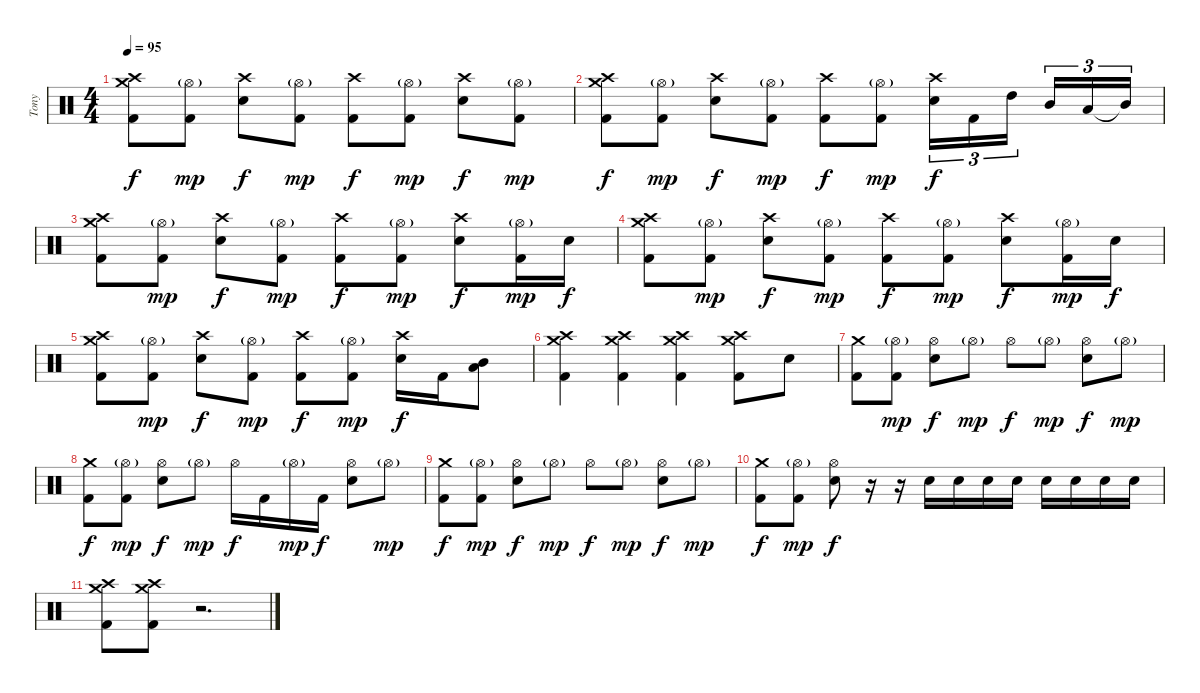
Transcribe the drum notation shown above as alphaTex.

\track ("Tony" "Tony") {instrument percussion}
\staff {score}
\articulation defaults
\ts (4 4)
\tempo 95
\clef neutral
\ks c
("Crash high (hit)" "Crash medium (hit)" "Kick (hit) 2").8{dy f} ("Hi-Hat (open)"{g} "Kick (hit) 2").8{dy mp} ("Crash high (hit)" "Electric Snare (hit)").8{dy f} ("Hi-Hat (open)"{g} "Kick (hit) 2").8{dy mp} ("Crash high (hit)" "Kick (hit) 2").8{dy f} ("Hi-Hat (open)"{g} "Kick (hit) 2").8{dy mp} ("Crash high (hit)" "Electric Snare (hit)").8{dy f} ("Hi-Hat (open)"{g} "Kick (hit) 2").8{dy mp} |
("Crash high (hit)" "Crash medium (hit)" "Kick (hit) 2").8{dy f} ("Hi-Hat (open)"{g} "Kick (hit) 2").8{dy mp} ("Crash high (hit)" "Electric Snare (hit)").8{dy f} ("Hi-Hat (open)"{g} "Kick (hit) 2").8{dy mp} ("Crash high (hit)" "Kick (hit) 2").8{dy f} ("Hi-Hat (open)"{g} "Kick (hit) 2").8{dy mp} ("Crash high (hit)" "Electric Snare (hit)").16{tu (3 2) dy f} "Kick (hit) 2".16{tu (3 2)} "High Tom (hit)".16{tu (3 2) beam splitsecondary} "Mid Tom (hit)".16{tu (3 2)} "Low Tom (hit)".16{tu (3 2)} "Mid Tom (hit)"{t}.16{tu (3 2)} |
("Crash high (hit)" "Crash medium (hit)" "Kick (hit) 2").8 ("Hi-Hat (open)"{g} "Kick (hit) 2").8{dy mp} ("Crash high (hit)" "Electric Snare (hit)").8{dy f} ("Hi-Hat (open)"{g} "Kick (hit) 2").8{dy mp} ("Crash high (hit)" "Kick (hit) 2").8{dy f} ("Hi-Hat (open)"{g} "Kick (hit) 2").8{dy mp} ("Crash high (hit)" "Electric Snare (hit)").8{dy f} ("Hi-Hat (open)"{g} "Kick (hit) 2").16{dy mp} "Electric Snare (hit)".16{dy f} |
("Crash high (hit)" "Crash medium (hit)" "Kick (hit) 2").8 ("Hi-Hat (open)"{g} "Kick (hit) 2").8{dy mp} ("Crash high (hit)" "Electric Snare (hit)").8{dy f} ("Hi-Hat (open)"{g} "Kick (hit) 2").8{dy mp} ("Crash high (hit)" "Kick (hit) 2").8{dy f} ("Hi-Hat (open)"{g} "Kick (hit) 2").8{dy mp} ("Crash high (hit)" "Electric Snare (hit)").8{dy f} ("Hi-Hat (open)"{g} "Kick (hit) 2").16{dy mp} "Electric Snare (hit)".16{dy f} |
("Crash high (hit)" "Crash medium (hit)" "Kick (hit) 2").8 ("Hi-Hat (open)"{g} "Kick (hit) 2").8{dy mp} ("Crash high (hit)" "Electric Snare (hit)").8{dy f} ("Hi-Hat (open)"{g} "Kick (hit) 2").8{dy mp} ("Crash high (hit)" "Kick (hit) 2").8{dy f} ("Hi-Hat (open)"{g} "Kick (hit) 2").8{dy mp} ("Crash high (hit)" "Electric Snare (hit)").16{dy f} "Kick (hit) 2".16 ("Mid Tom (hit)" "Low Tom (hit)").8{bd 60} |
("Crash high (hit)" "Crash medium (hit)" "Kick (hit) 2").4 ("Crash high (hit)" "Crash medium (hit)" "Kick (hit) 2").4 ("Crash high (hit)" "Crash medium (hit)" "Kick (hit) 2").4 ("Crash high (hit)" "Crash medium (hit)" "Kick (hit) 2").8 "Electric Snare (hit)".8 |
("Crash medium (hit)" "Kick (hit) 2").8 ("Hi-Hat (open)"{g} "Kick (hit) 2").8{dy mp} ("Hi-Hat (open)" "Electric Snare (hit)").8{dy f} "Hi-Hat (open)"{g}.8{dy mp} "Hi-Hat (open)".8{dy f} "Hi-Hat (open)"{g}.8{dy mp} ("Hi-Hat (open)" "Electric Snare (hit)").8{dy f} "Hi-Hat (open)"{g}.8{dy mp} |
("Crash medium (hit)" "Kick (hit) 2").8{dy f} ("Hi-Hat (open)"{g} "Kick (hit) 2").8{dy mp} ("Hi-Hat (open)" "Electric Snare (hit)").8{dy f} "Hi-Hat (open)"{g}.8{dy mp} "Hi-Hat (open)".16{dy f} "Kick (hit) 2".16 "Hi-Hat (open)"{g}.16{dy mp} "Kick (hit) 2".16{dy f} ("Hi-Hat (open)" "Electric Snare (hit)").8 "Hi-Hat (open)"{g}.8{dy mp} |
("Crash medium (hit)" "Kick (hit) 2").8{dy f} ("Hi-Hat (open)"{g} "Kick (hit) 2").8{dy mp} ("Hi-Hat (open)" "Electric Snare (hit)").8{dy f} "Hi-Hat (open)"{g}.8{dy mp} "Hi-Hat (open)".8{dy f} "Hi-Hat (open)"{g}.8{dy mp} ("Hi-Hat (open)" "Electric Snare (hit)").8{dy f} "Hi-Hat (open)"{g}.8{dy mp} |
("Crash medium (hit)" "Kick (hit) 2").8{dy f} ("Hi-Hat (open)"{g} "Kick (hit) 2").8{dy mp} ("Hi-Hat (open)" "Electric Snare (hit)").8{dy f} r.16 r.16 "Electric Snare (hit)".16 "Electric Snare (hit)".16 "Electric Snare (hit)".16 "Electric Snare (hit)".16 "Electric Snare (hit)".16 "Electric Snare (hit)".16 "Electric Snare (hit)".16 "Electric Snare (hit)".16 |
("Crash high (hit)" "Crash medium (hit)" "Kick (hit) 2").8 ("Crash high (hit)" "Crash medium (hit)" "Kick (hit) 2").8 r.2{d}
